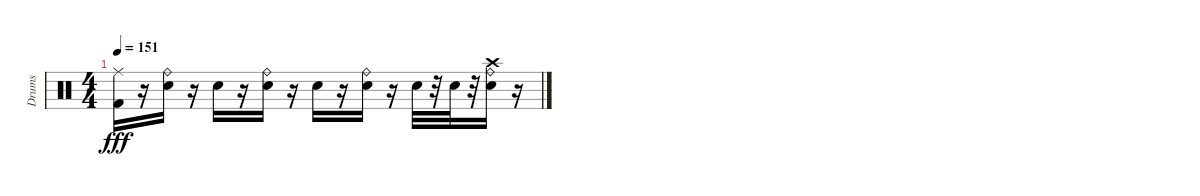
\track ("Drums" "Drums") {instrument percussion}
\staff {score}
\articulation defaults
\ts (4 4)
\tempo 151
\clef neutral
\ks c
("Ride (middle)" "Kick (hit) 2").16{dy fff} r.16 ("Snare (hit) 2" "Ride (bell)").16 r.16 "Snare (hit) 2".16 r.16 ("Snare (hit) 2" "Ride (bell)").16 r.16 "Snare (hit) 2".16 r.16 ("Snare (hit) 2" "Ride (bell)").16 r.16 "Snare (hit) 2".32 r.32 "Snare (hit) 2".32 r.32 ("Crash high (hit)" "Snare (hit) 2" "Ride (bell)").16 r.16
